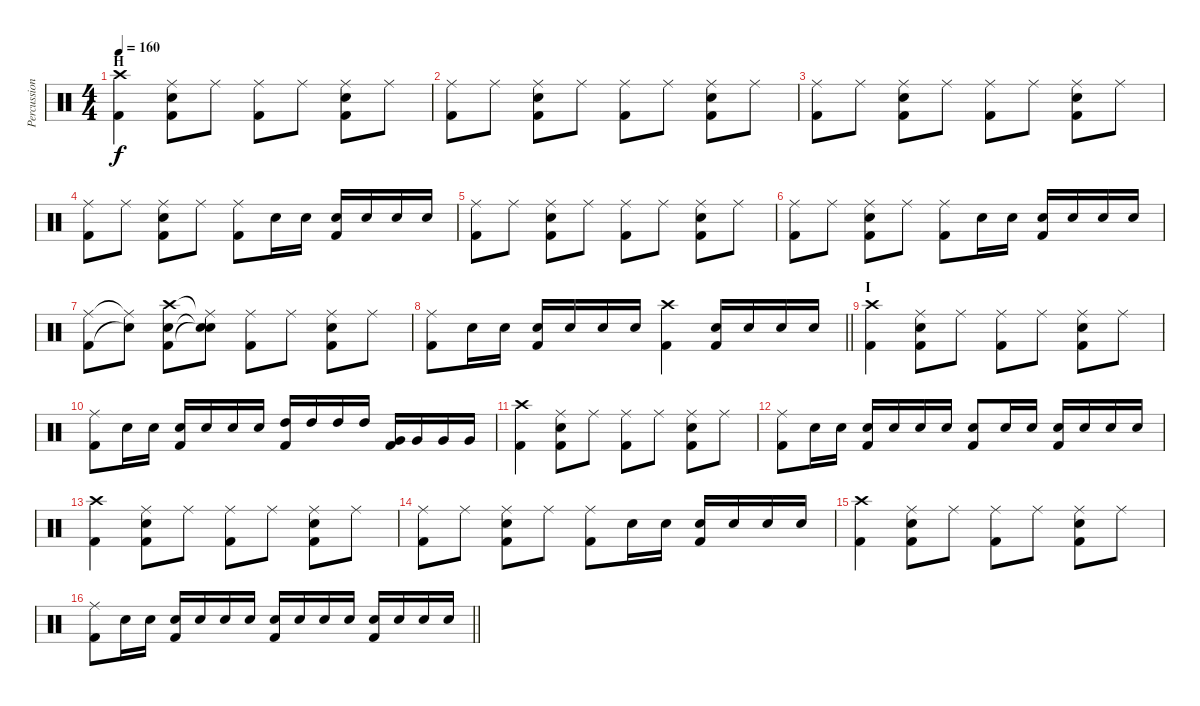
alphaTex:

\track ("Percussion" "Percussion") {instrument percussion}
\staff {score}
\articulation defaults
\ts (4 4)
\section ("" "H")
\tempo 160
\clef neutral
\ks c
("Crash high (hit)" "Kick (hit) 2").4{dy f} ("Ride (middle)" "Electric Snare (hit)" "Kick (hit) 2").8 "Ride (middle)".8 ("Ride (middle)" "Kick (hit) 2").8 "Ride (middle)".8 ("Ride (middle)" "Electric Snare (hit)" "Kick (hit) 2").8 "Ride (middle)".8 |
("Ride (middle)" "Kick (hit) 2").8 "Ride (middle)".8 ("Ride (middle)" "Electric Snare (hit)" "Kick (hit) 2").8 "Ride (middle)".8 ("Ride (middle)" "Kick (hit) 2").8 "Ride (middle)".8 ("Ride (middle)" "Electric Snare (hit)" "Kick (hit) 2").8 "Ride (middle)".8 |
("Ride (middle)" "Kick (hit) 2").8 "Ride (middle)".8 ("Ride (middle)" "Electric Snare (hit)" "Kick (hit) 2").8 "Ride (middle)".8 ("Ride (middle)" "Kick (hit) 2").8 "Ride (middle)".8 ("Ride (middle)" "Electric Snare (hit)" "Kick (hit) 2").8 "Ride (middle)".8 |
("Ride (middle)" "Kick (hit) 2").8 "Ride (middle)".8 ("Ride (middle)" "Electric Snare (hit)" "Kick (hit) 2").8 "Ride (middle)".8 ("Ride (middle)" "Kick (hit) 2").8 "Electric Snare (hit)".16 "Electric Snare (hit)".16 ("Electric Snare (hit)" "Kick (hit) 2").16 "Electric Snare (hit)".16 "Electric Snare (hit)".16 "Electric Snare (hit)".16 |
("Ride (middle)" "Kick (hit) 2").8 "Ride (middle)".8 ("Ride (middle)" "Electric Snare (hit)" "Kick (hit) 2").8 "Ride (middle)".8 ("Ride (middle)" "Kick (hit) 2").8 "Ride (middle)".8 ("Ride (middle)" "Electric Snare (hit)" "Kick (hit) 2").8 "Ride (middle)".8 |
("Ride (middle)" "Kick (hit) 2").8 "Ride (middle)".8 ("Ride (middle)" "Electric Snare (hit)" "Kick (hit) 2").8 "Ride (middle)".8 ("Ride (middle)" "Kick (hit) 2").8 "Electric Snare (hit)".16 "Electric Snare (hit)".16 ("Electric Snare (hit)" "Kick (hit) 2").16 "Electric Snare (hit)".16 "Electric Snare (hit)".16 "Electric Snare (hit)".16 |
("Ride (middle)" "Kick (hit) 2").8 ("Ride (middle)"{t} "Snare (hit)"{t}).8 ("Crash high (hit)" "Electric Snare (hit)" "Kick (hit) 2").8 ("Ride (middle)"{t} "Snare (hit)"{t} "Snare (hit)"{t}).8 ("Ride (middle)" "Kick (hit) 2").8 "Ride (middle)".8 ("Ride (middle)" "Electric Snare (hit)" "Kick (hit) 2").8 "Ride (middle)".8 |
\barLineRight lightlight
("Ride (middle)" "Kick (hit) 2").8 "Electric Snare (hit)".16 "Electric Snare (hit)".16 ("Electric Snare (hit)" "Kick (hit) 2").16 "Electric Snare (hit)".16 "Electric Snare (hit)".16 "Electric Snare (hit)".16 ("Crash high (hit)" "Kick (hit) 2").4 ("Electric Snare (hit)" "Kick (hit) 2").16 "Electric Snare (hit)".16 "Electric Snare (hit)".16 "Electric Snare (hit)".16 |
\section ("" "I")
("Crash high (hit)" "Kick (hit) 2").4 ("Ride (middle)" "Electric Snare (hit)" "Kick (hit) 2").8 "Ride (middle)".8 ("Ride (middle)" "Kick (hit) 2").8 "Ride (middle)".8 ("Ride (middle)" "Electric Snare (hit)" "Kick (hit) 2").8 "Ride (middle)".8 |
("Ride (middle)" "Kick (hit) 2").8 "Electric Snare (hit)".16 "Electric Snare (hit)".16 ("Electric Snare (hit)" "Kick (hit) 2").16 "Electric Snare (hit)".16 "Electric Snare (hit)".16 "Electric Snare (hit)".16 ("High Tom (hit)" "Kick (hit) 2").16 "High Tom (hit)".16 "High Tom (hit)".16 "High Tom (hit)".16 ("Very Low Tom (hit)" "Kick (hit) 2").16 "Very Low Tom (hit)".16 "Very Low Tom (hit)".16 "Very Low Tom (hit)".16 |
("Crash high (hit)" "Kick (hit) 2").4 ("Ride (middle)" "Electric Snare (hit)" "Kick (hit) 2").8 "Ride (middle)".8 ("Ride (middle)" "Kick (hit) 2").8 "Ride (middle)".8 ("Ride (middle)" "Electric Snare (hit)" "Kick (hit) 2").8 "Ride (middle)".8 |
("Ride (middle)" "Kick (hit) 2").8 "Electric Snare (hit)".16 "Electric Snare (hit)".16 ("Electric Snare (hit)" "Kick (hit) 2").16 "Electric Snare (hit)".16 "Electric Snare (hit)".16 "Electric Snare (hit)".16 ("Electric Snare (hit)" "Kick (hit) 2").8 "Electric Snare (hit)".16 "Electric Snare (hit)".16 ("Electric Snare (hit)" "Kick (hit) 2").16 "Electric Snare (hit)".16 "Electric Snare (hit)".16 "Electric Snare (hit)".16 |
("Crash high (hit)" "Kick (hit) 2").4 ("Ride (middle)" "Electric Snare (hit)" "Kick (hit) 2").8 "Ride (middle)".8 ("Ride (middle)" "Kick (hit) 2").8 "Ride (middle)".8 ("Ride (middle)" "Electric Snare (hit)" "Kick (hit) 2").8 "Ride (middle)".8 |
("Ride (middle)" "Kick (hit) 2").8 "Ride (middle)".8 ("Ride (middle)" "Electric Snare (hit)" "Kick (hit) 2").8 "Ride (middle)".8 ("Ride (middle)" "Kick (hit) 2").8 "Electric Snare (hit)".16 "Electric Snare (hit)".16 ("Electric Snare (hit)" "Kick (hit) 2").16 "Electric Snare (hit)".16 "Electric Snare (hit)".16 "Electric Snare (hit)".16 |
("Crash high (hit)" "Kick (hit) 2").4 ("Ride (middle)" "Electric Snare (hit)" "Kick (hit) 2").8 "Ride (middle)".8 ("Ride (middle)" "Kick (hit) 2").8 "Ride (middle)".8 ("Ride (middle)" "Electric Snare (hit)" "Kick (hit) 2").8 "Ride (middle)".8 |
\barLineRight lightlight
("Ride (middle)" "Kick (hit) 2").8 "Electric Snare (hit)".16 "Electric Snare (hit)".16 ("Electric Snare (hit)" "Kick (hit) 2").16 "Electric Snare (hit)".16 "Electric Snare (hit)".16 "Electric Snare (hit)".16 ("Electric Snare (hit)" "Kick (hit) 2").16 "Electric Snare (hit)".16 "Electric Snare (hit)".16 "Electric Snare (hit)".16 ("Electric Snare (hit)" "Kick (hit) 2").16 "Electric Snare (hit)".16 "Electric Snare (hit)".16 "Electric Snare (hit)".16
